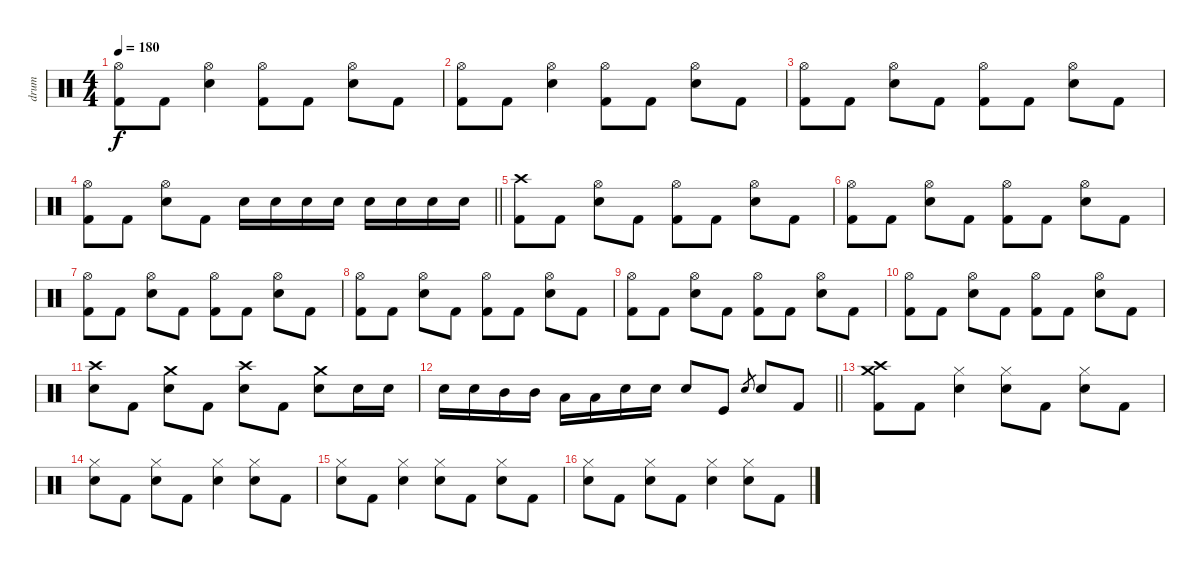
\track ("drum" "drum") {instrument percussion}
\staff {score}
\articulation defaults
\ts (4 4)
\tempo 180
\clef neutral
\ks c
("Hi-Hat (open)" "Kick (hit) 2").8{dy f} "Kick (hit) 2".8 ("Hi-Hat (open)" "Snare (hit) 2").4 ("Hi-Hat (open)" "Kick (hit) 2").8 "Kick (hit) 2".8 ("Hi-Hat (open)" "Snare (hit) 2").8 "Kick (hit) 2".8 |
("Hi-Hat (open)" "Kick (hit) 2").8 "Kick (hit) 2".8 ("Hi-Hat (open)" "Snare (hit) 2").4 ("Hi-Hat (open)" "Kick (hit) 2").8 "Kick (hit) 2".8 ("Hi-Hat (open)" "Snare (hit) 2").8 "Kick (hit) 2".8 |
("Hi-Hat (open)" "Kick (hit) 2").8 "Kick (hit) 2".8 ("Hi-Hat (open)" "Snare (hit) 2").8 "Kick (hit) 2".8 ("Hi-Hat (open)" "Kick (hit) 2").8 "Kick (hit) 2".8 ("Hi-Hat (open)" "Snare (hit) 2").8 "Kick (hit) 2".8 |
\barLineRight lightlight
("Hi-Hat (open)" "Kick (hit) 2").8 "Kick (hit) 2".8 ("Hi-Hat (open)" "Snare (hit) 2").8 "Kick (hit) 2".8 "Snare (hit) 2".16 "Snare (hit) 2".16 "Snare (hit) 2".16 "Snare (hit) 2".16 "Snare (hit) 2".16 "Snare (hit) 2".16 "Snare (hit) 2".16 "Snare (hit) 2".16 |
("Crash high (hit)" "Kick (hit) 2").8 "Kick (hit) 2".8 ("Hi-Hat (open)" "Snare (hit) 2").8 "Kick (hit) 2".8 ("Hi-Hat (open)" "Kick (hit) 2").8 "Kick (hit) 2".8 ("Hi-Hat (open)" "Snare (hit) 2").8 "Kick (hit) 2".8 |
("Hi-Hat (open)" "Kick (hit) 2").8 "Kick (hit) 2".8 ("Hi-Hat (open)" "Snare (hit) 2").8 "Kick (hit) 2".8 ("Hi-Hat (open)" "Kick (hit) 2").8 "Kick (hit) 2".8 ("Hi-Hat (open)" "Snare (hit) 2").8 "Kick (hit) 2".8 |
("Hi-Hat (open)" "Kick (hit) 2").8 "Kick (hit) 2".8 ("Hi-Hat (open)" "Snare (hit) 2").8 "Kick (hit) 2".8 ("Hi-Hat (open)" "Kick (hit) 2").8 "Kick (hit) 2".8 ("Hi-Hat (open)" "Snare (hit) 2").8 "Kick (hit) 2".8 |
("Hi-Hat (open)" "Kick (hit) 2").8 "Kick (hit) 2".8 ("Hi-Hat (open)" "Snare (hit) 2").8 "Kick (hit) 2".8 ("Hi-Hat (open)" "Kick (hit) 2").8 "Kick (hit) 2".8 ("Hi-Hat (open)" "Snare (hit) 2").8 "Kick (hit) 2".8 |
("Hi-Hat (open)" "Kick (hit) 2").8 "Kick (hit) 2".8 ("Hi-Hat (open)" "Snare (hit) 2").8 "Kick (hit) 2".8 ("Hi-Hat (open)" "Kick (hit) 2").8 "Kick (hit) 2".8 ("Hi-Hat (open)" "Snare (hit) 2").8 "Kick (hit) 2".8 |
("Hi-Hat (open)" "Kick (hit) 2").8 "Kick (hit) 2".8 ("Hi-Hat (open)" "Snare (hit) 2").8 "Kick (hit) 2".8 ("Hi-Hat (open)" "Kick (hit) 2").8 "Kick (hit) 2".8 ("Hi-Hat (open)" "Snare (hit) 2").8 "Kick (hit) 2".8 |
("Crash high (hit)" "Snare (hit) 2").8 "Kick (hit) 2".8 ("Crash medium (hit)" "Snare (hit) 2").8 "Kick (hit) 2".8 ("Crash high (hit)" "Snare (hit) 2").8 "Kick (hit) 2".8 ("Crash medium (hit)" "Snare (hit) 2").8 "Snare (hit) 2".16 "Snare (hit) 2".16 |
\barLineRight lightlight "Snare (hit) 2".16 "Snare (hit) 2".16 "Mid Tom (hit)".16 "Mid Tom (hit)".16 "Low Tom (hit)".16 "Low Tom (hit)".16 "Snare (hit) 2".16 "Snare (hit) 2".16 "Snare (hit) 2".8 "Kick (hit)".8 "Snare (hit) 2".8{gr} "Snare (hit) 2".8 "Kick (hit) 2".8
|
("Crash high (hit)" "Crash medium (hit)" "Kick (hit) 2").8 "Kick (hit) 2".8 ("Hi-Hat (closed)" "Snare (hit) 2").4 ("Hi-Hat (closed)" "Snare (hit) 2").8 "Kick (hit) 2".8 ("Hi-Hat (closed)" "Snare (hit) 2").8 "Kick (hit) 2".8 |
("Hi-Hat (closed)" "Snare (hit) 2").8 "Kick (hit) 2".8 ("Hi-Hat (closed)" "Snare (hit) 2").8 "Kick (hit) 2".8 ("Hi-Hat (closed)" "Snare (hit) 2").4 ("Hi-Hat (closed)" "Snare (hit) 2").8 "Kick (hit) 2".8 |
("Hi-Hat (closed)" "Snare (hit) 2").8 "Kick (hit) 2".8 ("Hi-Hat (closed)" "Snare (hit) 2").4 ("Hi-Hat (closed)" "Snare (hit) 2").8 "Kick (hit) 2".8 ("Hi-Hat (closed)" "Snare (hit) 2").8 "Kick (hit) 2".8 |
("Hi-Hat (closed)" "Snare (hit) 2").8 "Kick (hit) 2".8 ("Hi-Hat (closed)" "Snare (hit) 2").8 "Kick (hit) 2".8 ("Hi-Hat (closed)" "Snare (hit) 2").4 ("Hi-Hat (closed)" "Snare (hit) 2").8 "Kick (hit) 2".8
